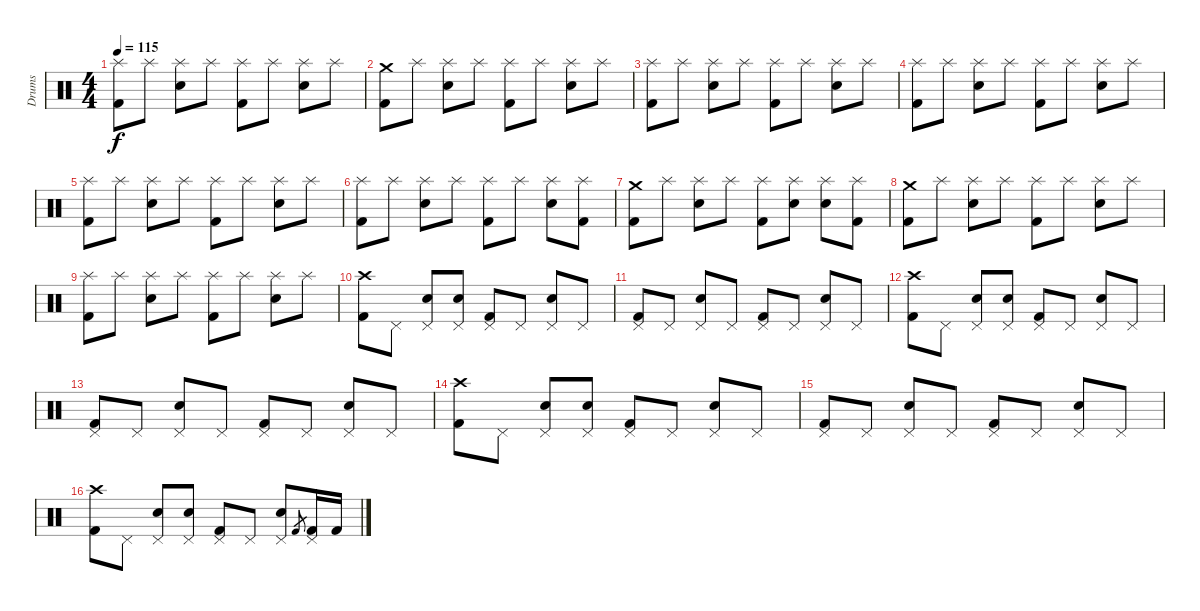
\track ("Drums" "Drums") {instrument percussion}
\staff {score}
\articulation defaults
\ts (4 4)
\tempo 115
\clef neutral
\ks c
("Splash (hit)" "Kick (hit) 2").8{dy f} "Splash (hit)".8 ("Splash (hit)" "Snare (hit) 2").8 "Splash (hit)".8 ("Splash (hit)" "Kick (hit) 2").8 "Splash (hit)".8 ("Splash (hit)" "Snare (hit) 2").8 "Splash (hit)".8 |
("Crash medium (hit)" "Kick (hit) 2").8 "Splash (hit)".8 ("Splash (hit)" "Snare (hit) 2").8 "Splash (hit)".8 ("Splash (hit)" "Kick (hit) 2").8 "Splash (hit)".8 ("Splash (hit)" "Snare (hit) 2").8 "Splash (hit)".8 |
("Splash (hit)" "Kick (hit) 2").8 "Splash (hit)".8 ("Splash (hit)" "Snare (hit) 2").8 "Splash (hit)".8 ("Splash (hit)" "Kick (hit) 2").8 "Splash (hit)".8 ("Splash (hit)" "Snare (hit) 2").8 "Splash (hit)".8 |
("Splash (hit)" "Kick (hit) 2").8 "Splash (hit)".8 ("Splash (hit)" "Snare (hit) 2").8 "Splash (hit)".8 ("Splash (hit)" "Kick (hit) 2").8 "Splash (hit)".8 ("Splash (hit)" "Snare (hit) 2").8 "Splash (hit)".8 |
("Splash (hit)" "Kick (hit) 2").8 "Splash (hit)".8 ("Splash (hit)" "Snare (hit) 2").8 "Splash (hit)".8 ("Splash (hit)" "Kick (hit) 2").8 "Splash (hit)".8 ("Splash (hit)" "Snare (hit) 2").8 "Splash (hit)".8 |
("Splash (hit)" "Kick (hit) 2").8 "Splash (hit)".8 ("Splash (hit)" "Snare (hit) 2").8 "Splash (hit)".8 ("Splash (hit)" "Kick (hit) 2").8 "Splash (hit)".8 ("Splash (hit)" "Snare (hit) 2").8 ("Splash (hit)" "Kick (hit) 2").8 |
("Crash medium (hit)" "Kick (hit) 2").8 "Splash (hit)".8 ("Splash (hit)" "Snare (hit) 2").8 "Splash (hit)".8 ("Splash (hit)" "Kick (hit) 2").8 ("Splash (hit)" "Snare (hit) 2").8 ("Splash (hit)" "Snare (hit) 2").8 ("Splash (hit)" "Kick (hit) 2").8 |
("Crash medium (hit)" "Kick (hit) 2").8 "Splash (hit)".8 ("Splash (hit)" "Snare (hit) 2").8 "Splash (hit)".8 ("Splash (hit)" "Kick (hit) 2").8 "Splash (hit)".8 ("Splash (hit)" "Snare (hit) 2").8 "Splash (hit)".8 |
("Splash (hit)" "Kick (hit) 2").8 "Splash (hit)".8 ("Splash (hit)" "Snare (hit) 2").8 "Splash (hit)".8 ("Splash (hit)" "Kick (hit) 2").8 "Splash (hit)".8 ("Splash (hit)" "Snare (hit) 2").8 "Splash (hit)".8 |
("Crash high (hit)" "Kick (hit) 2").8 "Pedal Hi-Hat (hit)".8 ("Pedal Hi-Hat (hit)" "Snare (hit) 2").8 ("Pedal Hi-Hat (hit)" "Snare (hit) 2").8 ("Pedal Hi-Hat (hit)" "Kick (hit) 2").8 "Pedal Hi-Hat (hit)".8 ("Pedal Hi-Hat (hit)" "Snare (hit) 2").8 "Pedal Hi-Hat (hit)".8 |
("Pedal Hi-Hat (hit)" "Kick (hit) 2").8 "Pedal Hi-Hat (hit)".8 ("Pedal Hi-Hat (hit)" "Snare (hit) 2").8 "Pedal Hi-Hat (hit)".8 ("Pedal Hi-Hat (hit)" "Kick (hit) 2").8 "Pedal Hi-Hat (hit)".8 ("Pedal Hi-Hat (hit)" "Snare (hit) 2").8 "Pedal Hi-Hat (hit)".8 |
("Crash high (hit)" "Kick (hit) 2").8 "Pedal Hi-Hat (hit)".8 ("Pedal Hi-Hat (hit)" "Snare (hit) 2").8 ("Pedal Hi-Hat (hit)" "Snare (hit) 2").8 ("Pedal Hi-Hat (hit)" "Kick (hit) 2").8 "Pedal Hi-Hat (hit)".8 ("Pedal Hi-Hat (hit)" "Snare (hit) 2").8 "Pedal Hi-Hat (hit)".8 |
("Pedal Hi-Hat (hit)" "Kick (hit) 2").8 "Pedal Hi-Hat (hit)".8 ("Pedal Hi-Hat (hit)" "Snare (hit) 2").8 "Pedal Hi-Hat (hit)".8 ("Pedal Hi-Hat (hit)" "Kick (hit) 2").8 "Pedal Hi-Hat (hit)".8 ("Pedal Hi-Hat (hit)" "Snare (hit) 2").8 "Pedal Hi-Hat (hit)".8 |
("Crash high (hit)" "Kick (hit) 2").8 "Pedal Hi-Hat (hit)".8 ("Pedal Hi-Hat (hit)" "Snare (hit) 2").8 ("Pedal Hi-Hat (hit)" "Snare (hit) 2").8 ("Pedal Hi-Hat (hit)" "Kick (hit) 2").8 "Pedal Hi-Hat (hit)".8 ("Pedal Hi-Hat (hit)" "Snare (hit) 2").8 "Pedal Hi-Hat (hit)".8 |
("Pedal Hi-Hat (hit)" "Kick (hit) 2").8 "Pedal Hi-Hat (hit)".8 ("Pedal Hi-Hat (hit)" "Snare (hit) 2").8 "Pedal Hi-Hat (hit)".8 ("Pedal Hi-Hat (hit)" "Kick (hit) 2").8 "Pedal Hi-Hat (hit)".8 ("Pedal Hi-Hat (hit)" "Snare (hit) 2").8 "Pedal Hi-Hat (hit)".8 |
("Crash high (hit)" "Kick (hit) 2").8 "Pedal Hi-Hat (hit)".8 ("Pedal Hi-Hat (hit)" "Snare (hit) 2").8 ("Pedal Hi-Hat (hit)" "Snare (hit) 2").8 ("Pedal Hi-Hat (hit)" "Kick (hit) 2").8 "Pedal Hi-Hat (hit)".8 ("Pedal Hi-Hat (hit)" "Snare (hit) 2").8 "Kick (hit) 2".8{gr} ("Pedal Hi-Hat (hit)" "Kick (hit) 2").16 "Kick (hit) 2".16
